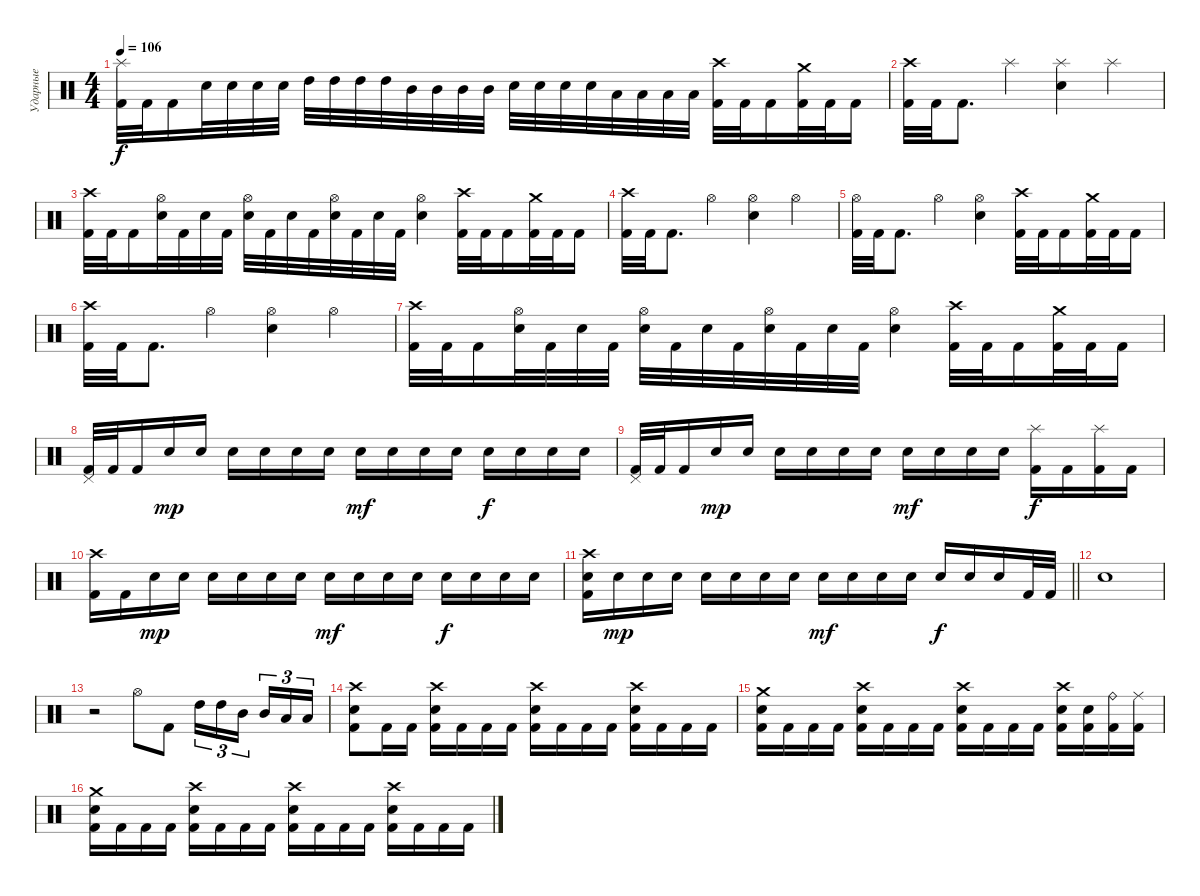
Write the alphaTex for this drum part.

\track ("Ударные" "Ударные") {instrument percussion}
\staff {score}
\articulation defaults
\ts (4 4)
\tempo 106
\clef neutral
\ks c
("Splash (hit)" "Kick (hit) 2").32{dy f} "Kick (hit) 2".32 "Kick (hit) 2".16 "Electric Snare (hit)".32 "Electric Snare (hit)".32 "Electric Snare (hit)".32 "Electric Snare (hit)".32 "High Tom (hit)".32 "High Tom (hit)".32 "High Tom (hit)".32 "High Tom (hit)".32 "Mid Tom (hit)".32 "Mid Tom (hit)".32 "Mid Tom (hit)".32 "Mid Tom (hit)".32 "Electric Snare (hit)".32 "Electric Snare (hit)".32 "Electric Snare (hit)".32 "Electric Snare (hit)".32 "Low Tom (hit)".32 "Low Tom (hit)".32 "Low Tom (hit)".32 "Low Tom (hit)".32 ("Crash high (hit)" "Kick (hit) 2").32 "Kick (hit) 2".32 "Kick (hit) 2".16 ("Crash medium (hit)" "Kick (hit) 2").32 "Kick (hit) 2".32 "Kick (hit) 2".16 |
("Crash high (hit)" "Kick (hit) 2").32 "Kick (hit) 2".32 "Kick (hit) 2".8{d} "Splash (hit)".4 ("Splash (hit)" "Electric Snare (hit)").4 "Splash (hit)".4 |
("Crash high (hit)" "Kick (hit) 2").32 "Kick (hit) 2".32 "Kick (hit) 2".16 ("Hi-Hat (open)" "Electric Snare (hit)").32 "Kick (hit) 2".32 "Electric Snare (hit)".32 "Kick (hit) 2".32 ("Hi-Hat (open)" "Electric Snare (hit)").32 "Kick (hit) 2".32 "Electric Snare (hit)".32 "Kick (hit) 2".32 ("Hi-Hat (open)" "Electric Snare (hit)").32 "Kick (hit) 2".32 "Electric Snare (hit)".32 "Kick (hit) 2".32 ("Hi-Hat (open)" "Electric Snare (hit)").4 ("Crash high (hit)" "Kick (hit) 2").32 "Kick (hit) 2".32 "Kick (hit) 2".16 ("Crash medium (hit)" "Kick (hit) 2").32 "Kick (hit) 2".32 "Kick (hit) 2".16 |
("Crash high (hit)" "Kick (hit) 2").32 "Kick (hit) 2".32 "Kick (hit) 2".8{d} "Hi-Hat (open)".4 ("Hi-Hat (open)" "Electric Snare (hit)").4 "Hi-Hat (open)".4 |
("Hi-Hat (open)" "Kick (hit) 2").32 "Kick (hit) 2".32 "Kick (hit) 2".8{d} "Hi-Hat (open)".4 ("Hi-Hat (open)" "Electric Snare (hit)").4 ("Crash high (hit)" "Kick (hit) 2").32 "Kick (hit) 2".32 "Kick (hit) 2".16 ("Crash medium (hit)" "Kick (hit) 2").32 "Kick (hit) 2".32 "Kick (hit) 2".16 |
("Crash high (hit)" "Kick (hit) 2").32 "Kick (hit) 2".32 "Kick (hit) 2".8{d} "Hi-Hat (open)".4 ("Hi-Hat (open)" "Electric Snare (hit)").4 "Hi-Hat (open)".4 |
("Crash high (hit)" "Kick (hit) 2").32 "Kick (hit) 2".32 "Kick (hit) 2".16 ("Hi-Hat (open)" "Electric Snare (hit)").32 "Kick (hit) 2".32 "Electric Snare (hit)".32 "Kick (hit) 2".32 ("Hi-Hat (open)" "Electric Snare (hit)").32 "Kick (hit) 2".32 "Electric Snare (hit)".32 "Kick (hit) 2".32 ("Hi-Hat (open)" "Electric Snare (hit)").32 "Kick (hit) 2".32 "Electric Snare (hit)".32 "Kick (hit) 2".32 ("Hi-Hat (open)" "Electric Snare (hit)").4 ("Crash high (hit)" "Kick (hit) 2").32 "Kick (hit) 2".32 "Kick (hit) 2".16 ("Crash medium (hit)" "Kick (hit) 2").32 "Kick (hit) 2".32 "Kick (hit) 2".16 |
("Pedal Hi-Hat (hit)" "Kick (hit) 2").32 "Kick (hit) 2".32 "Kick (hit) 2".16 "Electric Snare (hit)".16{dy mp} "Electric Snare (hit)".16 "Electric Snare (hit)".16 "Electric Snare (hit)".16 "Electric Snare (hit)".16 "Electric Snare (hit)".16 "Electric Snare (hit)".16{dy mf} "Electric Snare (hit)".16 "Electric Snare (hit)".16 "Electric Snare (hit)".16 "Electric Snare (hit)".16{dy f} "Electric Snare (hit)".16 "Electric Snare (hit)".16 "Electric Snare (hit)".16 |
("Pedal Hi-Hat (hit)" "Kick (hit) 2").32 "Kick (hit) 2".32 "Kick (hit) 2".16 "Electric Snare (hit)".16{dy mp} "Electric Snare (hit)".16 "Electric Snare (hit)".16 "Electric Snare (hit)".16 "Electric Snare (hit)".16 "Electric Snare (hit)".16 "Electric Snare (hit)".16{dy mf} "Electric Snare (hit)".16 "Electric Snare (hit)".16 "Electric Snare (hit)".16 ("Splash (hit)" "Kick (hit) 2").16{dy f} "Kick (hit) 2".16 ("Splash (hit)" "Kick (hit) 2").16 "Kick (hit) 2".16 |
("Crash high (hit)" "Kick (hit) 2").16 "Kick (hit) 2".16 "Electric Snare (hit)".16{dy mp} "Electric Snare (hit)".16 "Electric Snare (hit)".16 "Electric Snare (hit)".16 "Electric Snare (hit)".16 "Electric Snare (hit)".16 "Electric Snare (hit)".16{dy mf} "Electric Snare (hit)".16 "Electric Snare (hit)".16 "Electric Snare (hit)".16 "Electric Snare (hit)".16{dy f} "Electric Snare (hit)".16 "Electric Snare (hit)".16 "Electric Snare (hit)".16 |
\barLineRight lightlight
("Crash high (hit)" "Electric Snare (hit)" "Kick (hit) 2").16 "Electric Snare (hit)".16{dy mp} "Electric Snare (hit)".16 "Electric Snare (hit)".16 "Electric Snare (hit)".16 "Electric Snare (hit)".16 "Electric Snare (hit)".16 "Electric Snare (hit)".16 "Electric Snare (hit)".16{dy mf} "Electric Snare (hit)".16 "Electric Snare (hit)".16 "Electric Snare (hit)".16 "Electric Snare (hit)".16{dy f} "Electric Snare (hit)".16 "Electric Snare (hit)".16 "Kick (hit) 2".32 "Kick (hit) 2".32 |
"Electric Snare (hit)".1 |
r.2 "Hi-Hat (open)".8 "Kick (hit) 2".8 "High Tom (hit)".16{tu (3 2)} "High Tom (hit)".16{tu (3 2)} "Mid Tom (hit)".16{tu (3 2) beam splitsecondary} "Mid Tom (hit)".16{tu (3 2)} "Low Tom (hit)".16{tu (3 2)} "Low Tom (hit)".16{tu (3 2)} |
("Crash high (hit)" "Electric Snare (hit)" "Kick (hit) 2").8 "Kick (hit) 2".16 "Kick (hit) 2".16 ("Crash high (hit)" "Electric Snare (hit)" "Kick (hit) 2").16 "Kick (hit) 2".16 "Kick (hit) 2".16 "Kick (hit) 2".16 ("Crash high (hit)" "Electric Snare (hit)" "Kick (hit) 2").16 "Kick (hit) 2".16 "Kick (hit) 2".16 "Kick (hit) 2".16 ("Crash high (hit)" "Electric Snare (hit)" "Kick (hit) 2").16 "Kick (hit) 2".16 "Kick (hit) 2".16 "Kick (hit) 2".16 |
("Crash medium (hit)" "Electric Snare (hit)" "Kick (hit) 2").16 "Kick (hit) 2".16 "Kick (hit) 2".16 "Kick (hit) 2".16 ("Crash high (hit)" "Electric Snare (hit)" "Kick (hit) 2").16 "Kick (hit) 2".16 "Kick (hit) 2".16 "Kick (hit) 2".16 ("Crash high (hit)" "Electric Snare (hit)" "Kick (hit) 2").16 "Kick (hit) 2".16 "Kick (hit) 2".16 "Kick (hit) 2".16 ("Crash high (hit)" "Electric Snare (hit)" "Kick (hit) 2").16 ("Electric Snare (hit)" "Kick (hit) 2").16 ("Ride (bell)" "Kick (hit) 2").16 ("Ride (middle)" "Kick (hit) 2").16 |
("Crash medium (hit)" "Electric Snare (hit)" "Kick (hit) 2").16 "Kick (hit) 2".16 "Kick (hit) 2".16 "Kick (hit) 2".16 ("Crash high (hit)" "Electric Snare (hit)" "Kick (hit) 2").16 "Kick (hit) 2".16 "Kick (hit) 2".16 "Kick (hit) 2".16 ("Crash high (hit)" "Electric Snare (hit)" "Kick (hit) 2").16 "Kick (hit) 2".16 "Kick (hit) 2".16 "Kick (hit) 2".16 ("Crash high (hit)" "Electric Snare (hit)" "Kick (hit) 2").16 "Kick (hit) 2".16 "Kick (hit) 2".16 "Kick (hit) 2".16
